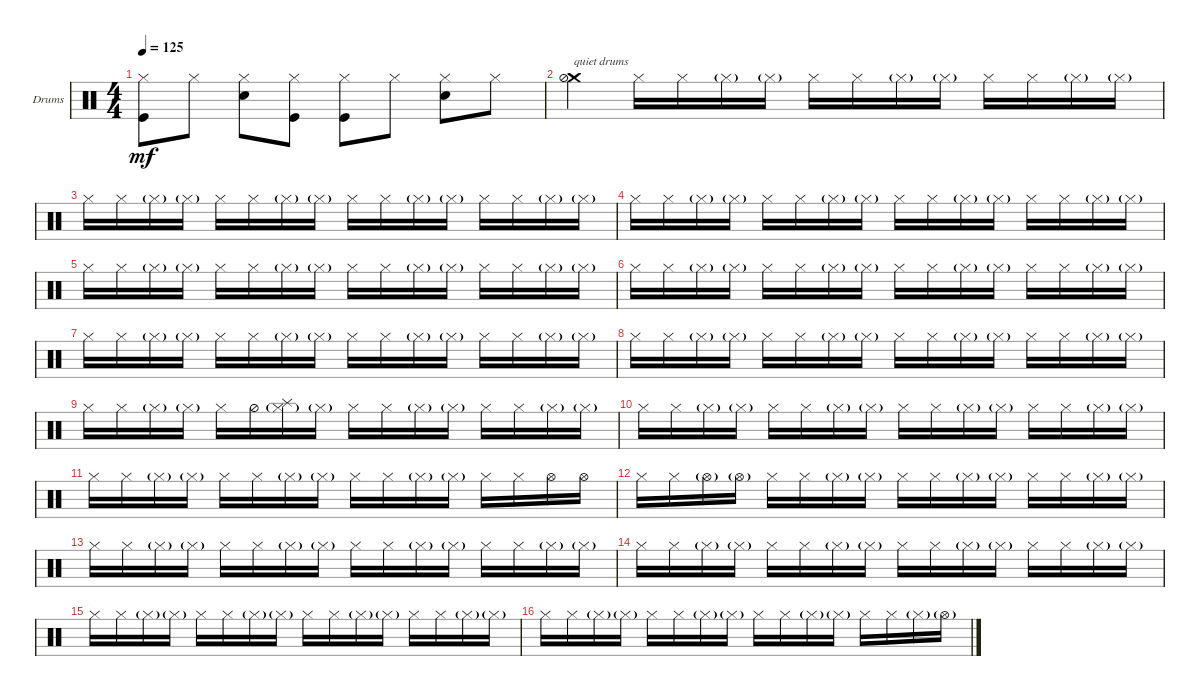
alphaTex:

\defaultSystemsLayout 4
\bracketExtendMode groupsimilarinstruments
\firstSystemTrackNameOrientation horizontal
\otherSystemsTrackNameOrientation horizontal
\track ("Drumkit" "Drums") {instrument percussion}
\staff {score}
\articulation defaults
\ts (4 4)
\tempo 125
\clef neutral
\ks c
("Hi-Hat (closed)" "Kick (hit)").8{dy mf} "Hi-Hat (closed)".8 ("Hi-Hat (closed)" "Snare (hit) 2").8 ("Hi-Hat (closed)" "Kick (hit)").8 ("Hi-Hat (closed)" "Kick (hit)").8 "Hi-Hat (closed)".8 ("Hi-Hat (closed)" "Snare (hit) 2").8 "Hi-Hat (closed)".8 |
("Crash medium (hit)" "Hi-Hat (half)").4{txt "quiet drums"} "Hi-Hat (closed)".16 "Hi-Hat (closed)".16 "Hi-Hat (closed)"{g}.16 "Hi-Hat (closed)"{g}.16 "Hi-Hat (closed)".16 "Hi-Hat (closed)".16 "Hi-Hat (closed)"{g}.16 "Hi-Hat (closed)"{g}.16 "Hi-Hat (closed)".16 "Hi-Hat (closed)".16 "Hi-Hat (closed)"{g}.16 "Hi-Hat (closed)"{g}.16 |
"Hi-Hat (closed)".16 "Hi-Hat (closed)".16 "Hi-Hat (closed)"{g}.16 "Hi-Hat (closed)"{g}.16 "Hi-Hat (closed)".16 "Hi-Hat (closed)".16 "Hi-Hat (closed)"{g}.16 "Hi-Hat (closed)"{g}.16 "Hi-Hat (closed)".16 "Hi-Hat (closed)".16 "Hi-Hat (closed)"{g}.16 "Hi-Hat (closed)"{g}.16 "Hi-Hat (closed)".16 "Hi-Hat (closed)".16 "Hi-Hat (closed)"{g}.16 "Hi-Hat (closed)"{g}.16 |
"Hi-Hat (closed)".16 "Hi-Hat (closed)".16 "Hi-Hat (closed)"{g}.16 "Hi-Hat (closed)"{g}.16 "Hi-Hat (closed)".16 "Hi-Hat (closed)".16 "Hi-Hat (closed)"{g}.16 "Hi-Hat (closed)"{g}.16 "Hi-Hat (closed)".16 "Hi-Hat (closed)".16 "Hi-Hat (closed)"{g}.16 "Hi-Hat (closed)"{g}.16 "Hi-Hat (closed)".16 "Hi-Hat (closed)".16 "Hi-Hat (closed)"{g}.16 "Hi-Hat (closed)"{g}.16 |
"Hi-Hat (closed)".16 "Hi-Hat (closed)".16 "Hi-Hat (closed)"{g}.16 "Hi-Hat (closed)"{g}.16 "Hi-Hat (closed)".16 "Hi-Hat (closed)".16 "Hi-Hat (closed)"{g}.16 "Hi-Hat (closed)"{g}.16 "Hi-Hat (closed)".16 "Hi-Hat (closed)".16 "Hi-Hat (closed)"{g}.16 "Hi-Hat (closed)"{g}.16 "Hi-Hat (closed)".16 "Hi-Hat (closed)".16 "Hi-Hat (closed)"{g}.16 "Hi-Hat (closed)"{g}.16 |
"Hi-Hat (closed)".16 "Hi-Hat (closed)".16 "Hi-Hat (closed)"{g}.16 "Hi-Hat (closed)"{g}.16 "Hi-Hat (closed)".16 "Hi-Hat (closed)".16 "Hi-Hat (closed)"{g}.16 "Hi-Hat (closed)"{g}.16 "Hi-Hat (closed)".16 "Hi-Hat (closed)".16 "Hi-Hat (closed)"{g}.16 "Hi-Hat (closed)"{g}.16 "Hi-Hat (closed)".16 "Hi-Hat (closed)".16 "Hi-Hat (closed)"{g}.16 "Hi-Hat (closed)"{g}.16 |
"Hi-Hat (closed)".16 "Hi-Hat (closed)".16 "Hi-Hat (closed)"{g}.16 "Hi-Hat (closed)"{g}.16 "Hi-Hat (closed)".16 "Hi-Hat (closed)".16 "Hi-Hat (closed)"{g}.16 "Hi-Hat (closed)"{g}.16 "Hi-Hat (closed)".16 "Hi-Hat (closed)".16 "Hi-Hat (closed)"{g}.16 "Hi-Hat (closed)"{g}.16 "Hi-Hat (closed)".16 "Hi-Hat (closed)".16 "Hi-Hat (closed)"{g}.16 "Hi-Hat (closed)"{g}.16 |
"Hi-Hat (closed)".16 "Hi-Hat (closed)".16 "Hi-Hat (closed)"{g}.16 "Hi-Hat (closed)"{g}.16 "Hi-Hat (closed)".16 "Hi-Hat (closed)".16 "Hi-Hat (closed)"{g}.16 "Hi-Hat (closed)"{g}.16 "Hi-Hat (closed)".16 "Hi-Hat (closed)".16 "Hi-Hat (closed)"{g}.16 "Hi-Hat (closed)"{g}.16 "Hi-Hat (closed)".16 "Hi-Hat (closed)".16 "Hi-Hat (closed)"{g}.16 "Hi-Hat (closed)"{g}.16 |
"Hi-Hat (closed)".16 "Hi-Hat (closed)".16 "Hi-Hat (closed)"{g}.16 "Hi-Hat (closed)"{g}.16 "Hi-Hat (closed)".16 "Hi-Hat (half)".16 ("Hi-Hat (closed)"{g} "Splash (hit)").16 "Hi-Hat (closed)"{g}.16 "Hi-Hat (closed)".16 "Hi-Hat (closed)".16 "Hi-Hat (closed)"{g}.16 "Hi-Hat (closed)"{g}.16 "Hi-Hat (closed)".16 "Hi-Hat (closed)".16 "Hi-Hat (closed)"{g}.16 "Hi-Hat (closed)"{g}.16 |
"Hi-Hat (closed)".16 "Hi-Hat (closed)".16 "Hi-Hat (closed)"{g}.16 "Hi-Hat (closed)"{g}.16 "Hi-Hat (closed)".16 "Hi-Hat (closed)".16 "Hi-Hat (closed)"{g}.16 "Hi-Hat (closed)"{g}.16 "Hi-Hat (closed)".16 "Hi-Hat (closed)".16 "Hi-Hat (closed)"{g}.16 "Hi-Hat (closed)"{g}.16 "Hi-Hat (closed)".16 "Hi-Hat (closed)".16 "Hi-Hat (closed)"{g}.16 "Hi-Hat (closed)"{g}.16 |
"Hi-Hat (closed)".16 "Hi-Hat (closed)".16 "Hi-Hat (closed)"{g}.16 "Hi-Hat (closed)"{g}.16 "Hi-Hat (closed)".16 "Hi-Hat (closed)".16 "Hi-Hat (closed)"{g}.16 "Hi-Hat (closed)"{g}.16 "Hi-Hat (closed)".16 "Hi-Hat (closed)".16 "Hi-Hat (closed)"{g}.16 "Hi-Hat (closed)"{g}.16 "Hi-Hat (closed)".16 "Hi-Hat (closed)".16 "Hi-Hat (open)".16 "Hi-Hat (open)".16 |
"Hi-Hat (closed)".16 "Hi-Hat (closed)".16 "Hi-Hat (open)"{g}.16 "Hi-Hat (open)"{g}.16 "Hi-Hat (closed)".16 "Hi-Hat (closed)".16 "Hi-Hat (closed)"{g}.16 "Hi-Hat (closed)"{g}.16 "Hi-Hat (closed)".16 "Hi-Hat (closed)".16 "Hi-Hat (closed)"{g}.16 "Hi-Hat (closed)"{g}.16 "Hi-Hat (closed)".16 "Hi-Hat (closed)".16 "Hi-Hat (closed)"{g}.16 "Hi-Hat (closed)"{g}.16 |
"Hi-Hat (closed)".16 "Hi-Hat (closed)".16 "Hi-Hat (closed)"{g}.16 "Hi-Hat (closed)"{g}.16 "Hi-Hat (closed)".16 "Hi-Hat (closed)".16 "Hi-Hat (closed)"{g}.16 "Hi-Hat (closed)"{g}.16 "Hi-Hat (closed)".16 "Hi-Hat (closed)".16 "Hi-Hat (closed)"{g}.16 "Hi-Hat (closed)"{g}.16 "Hi-Hat (closed)".16 "Hi-Hat (closed)".16 "Hi-Hat (closed)"{g}.16 "Hi-Hat (closed)"{g}.16 |
"Hi-Hat (closed)".16 "Hi-Hat (closed)".16 "Hi-Hat (closed)"{g}.16 "Hi-Hat (closed)"{g}.16 "Hi-Hat (closed)".16 "Hi-Hat (closed)".16 "Hi-Hat (closed)"{g}.16 "Hi-Hat (closed)"{g}.16 "Hi-Hat (closed)".16 "Hi-Hat (closed)".16 "Hi-Hat (closed)"{g}.16 "Hi-Hat (closed)"{g}.16 "Hi-Hat (closed)".16 "Hi-Hat (closed)".16 "Hi-Hat (closed)"{g}.16 "Hi-Hat (closed)"{g}.16 |
"Hi-Hat (closed)".16 "Hi-Hat (closed)".16 "Hi-Hat (closed)"{g}.16 "Hi-Hat (closed)"{g}.16 "Hi-Hat (closed)".16 "Hi-Hat (closed)".16 "Hi-Hat (closed)"{g}.16 "Hi-Hat (closed)"{g}.16 "Hi-Hat (closed)".16 "Hi-Hat (closed)".16 "Hi-Hat (closed)"{g}.16 "Hi-Hat (closed)"{g}.16 "Hi-Hat (closed)".16 "Hi-Hat (closed)".16 "Hi-Hat (closed)"{g}.16 "Hi-Hat (closed)"{g}.16 |
"Hi-Hat (closed)".16 "Hi-Hat (closed)".16 "Hi-Hat (closed)"{g}.16 "Hi-Hat (closed)"{g}.16 "Hi-Hat (closed)".16 "Hi-Hat (closed)".16 "Hi-Hat (closed)"{g}.16 "Hi-Hat (closed)"{g}.16 "Hi-Hat (closed)".16 "Hi-Hat (closed)".16 "Hi-Hat (closed)"{g}.16 "Hi-Hat (closed)"{g}.16 "Hi-Hat (closed)".16 "Hi-Hat (closed)".16 "Hi-Hat (closed)"{g}.16 "Hi-Hat (open)"{g}.16
